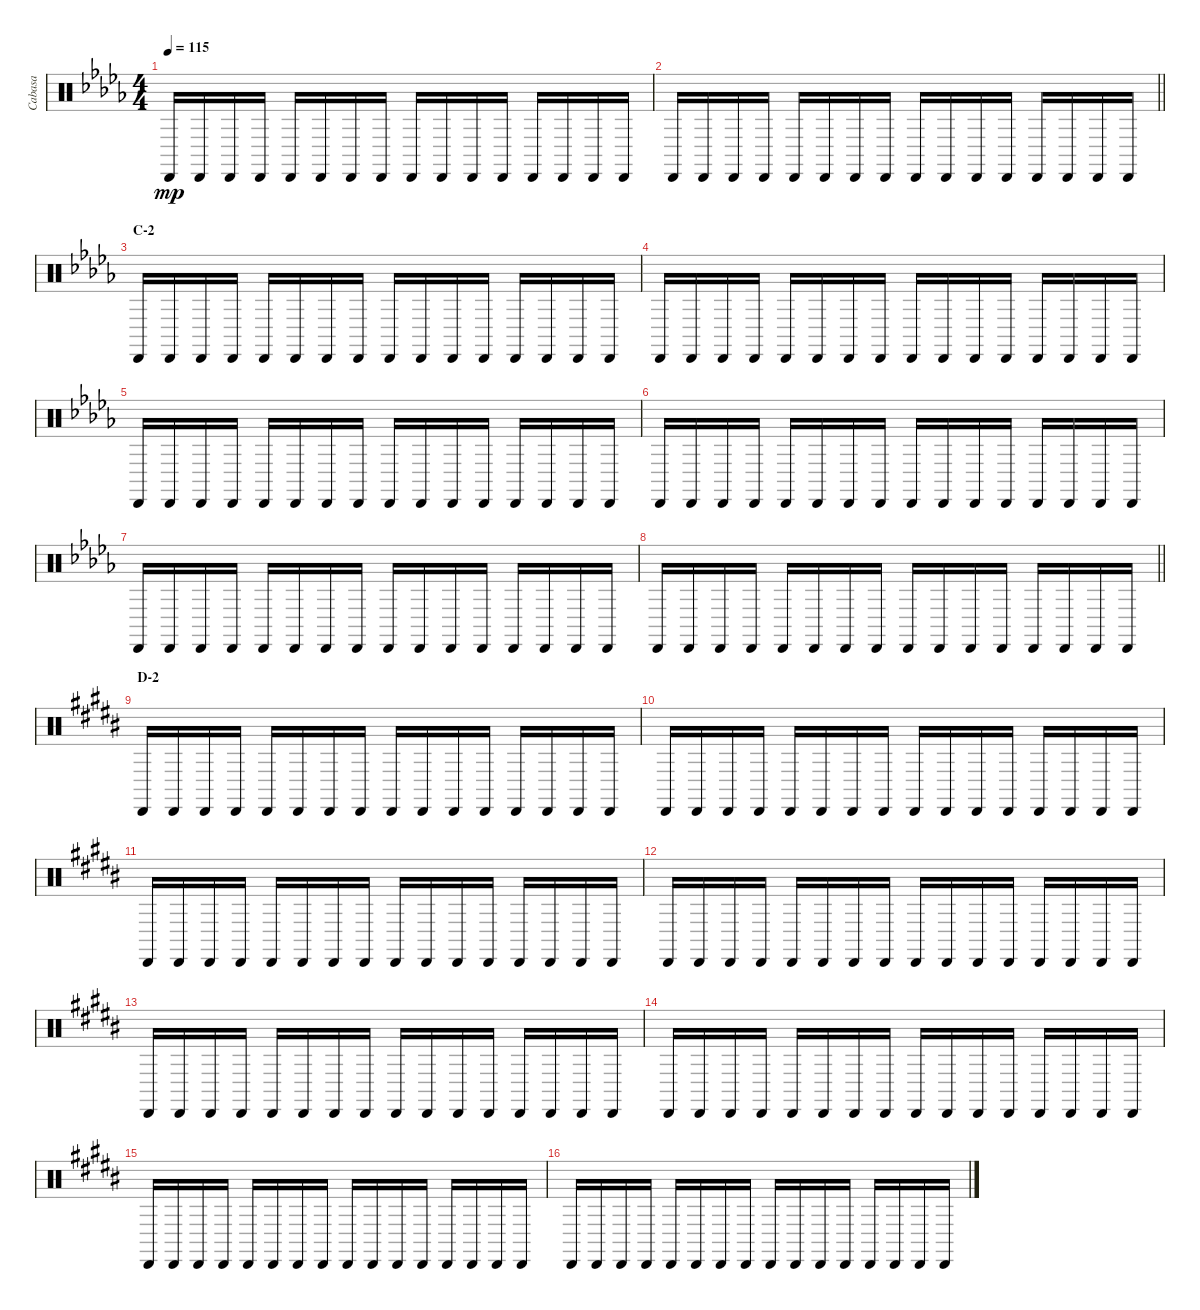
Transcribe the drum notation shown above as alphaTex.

\track ("Cabasa" "Cabasa") {instrument percussion}
\staff {score}
\articulation defaults
\ts (4 4)
\tempo 115
\clef neutral
\ks db "Cabasa (hit)".16{dy mp} "Cabasa (hit)".16 "Cabasa (hit)".16 "Cabasa (hit)".16 "Cabasa (hit)".16 "Cabasa (hit)".16 "Cabasa (hit)".16 "Cabasa (hit)".16 "Cabasa (hit)".16 "Cabasa (hit)".16 "Cabasa (hit)".16 "Cabasa (hit)".16 "Cabasa (hit)".16 "Cabasa (hit)".16 "Cabasa (hit)".16 "Cabasa (hit)".16
|
\barLineRight lightlight "Cabasa (hit)".16 "Cabasa (hit)".16 "Cabasa (hit)".16 "Cabasa (hit)".16 "Cabasa (hit)".16 "Cabasa (hit)".16 "Cabasa (hit)".16 "Cabasa (hit)".16 "Cabasa (hit)".16 "Cabasa (hit)".16 "Cabasa (hit)".16 "Cabasa (hit)".16 "Cabasa (hit)".16 "Cabasa (hit)".16 "Cabasa (hit)".16 "Cabasa (hit)".16
|
\section ("" "C-2")
"Cabasa (hit)".16 "Cabasa (hit)".16 "Cabasa (hit)".16 "Cabasa (hit)".16 "Cabasa (hit)".16 "Cabasa (hit)".16 "Cabasa (hit)".16 "Cabasa (hit)".16 "Cabasa (hit)".16 "Cabasa (hit)".16 "Cabasa (hit)".16 "Cabasa (hit)".16 "Cabasa (hit)".16 "Cabasa (hit)".16 "Cabasa (hit)".16 "Cabasa (hit)".16 |
"Cabasa (hit)".16 "Cabasa (hit)".16 "Cabasa (hit)".16 "Cabasa (hit)".16 "Cabasa (hit)".16 "Cabasa (hit)".16 "Cabasa (hit)".16 "Cabasa (hit)".16 "Cabasa (hit)".16 "Cabasa (hit)".16 "Cabasa (hit)".16 "Cabasa (hit)".16 "Cabasa (hit)".16 "Cabasa (hit)".16 "Cabasa (hit)".16 "Cabasa (hit)".16 |
"Cabasa (hit)".16 "Cabasa (hit)".16 "Cabasa (hit)".16 "Cabasa (hit)".16 "Cabasa (hit)".16 "Cabasa (hit)".16 "Cabasa (hit)".16 "Cabasa (hit)".16 "Cabasa (hit)".16 "Cabasa (hit)".16 "Cabasa (hit)".16 "Cabasa (hit)".16 "Cabasa (hit)".16 "Cabasa (hit)".16 "Cabasa (hit)".16 "Cabasa (hit)".16 |
"Cabasa (hit)".16 "Cabasa (hit)".16 "Cabasa (hit)".16 "Cabasa (hit)".16 "Cabasa (hit)".16 "Cabasa (hit)".16 "Cabasa (hit)".16 "Cabasa (hit)".16 "Cabasa (hit)".16 "Cabasa (hit)".16 "Cabasa (hit)".16 "Cabasa (hit)".16 "Cabasa (hit)".16 "Cabasa (hit)".16 "Cabasa (hit)".16 "Cabasa (hit)".16 |
"Cabasa (hit)".16 "Cabasa (hit)".16 "Cabasa (hit)".16 "Cabasa (hit)".16 "Cabasa (hit)".16 "Cabasa (hit)".16 "Cabasa (hit)".16 "Cabasa (hit)".16 "Cabasa (hit)".16 "Cabasa (hit)".16 "Cabasa (hit)".16 "Cabasa (hit)".16 "Cabasa (hit)".16 "Cabasa (hit)".16 "Cabasa (hit)".16 "Cabasa (hit)".16 |
\barLineRight lightlight "Cabasa (hit)".16 "Cabasa (hit)".16 "Cabasa (hit)".16 "Cabasa (hit)".16 "Cabasa (hit)".16 "Cabasa (hit)".16 "Cabasa (hit)".16 "Cabasa (hit)".16 "Cabasa (hit)".16 "Cabasa (hit)".16 "Cabasa (hit)".16 "Cabasa (hit)".16 "Cabasa (hit)".16 "Cabasa (hit)".16 "Cabasa (hit)".16 "Cabasa (hit)".16
|
\section ("" "D-2")
\ks b "Cabasa (hit)".16 "Cabasa (hit)".16 "Cabasa (hit)".16 "Cabasa (hit)".16 "Cabasa (hit)".16 "Cabasa (hit)".16 "Cabasa (hit)".16 "Cabasa (hit)".16 "Cabasa (hit)".16 "Cabasa (hit)".16 "Cabasa (hit)".16 "Cabasa (hit)".16 "Cabasa (hit)".16 "Cabasa (hit)".16 "Cabasa (hit)".16 "Cabasa (hit)".16
|
"Cabasa (hit)".16 "Cabasa (hit)".16 "Cabasa (hit)".16 "Cabasa (hit)".16 "Cabasa (hit)".16 "Cabasa (hit)".16 "Cabasa (hit)".16 "Cabasa (hit)".16 "Cabasa (hit)".16 "Cabasa (hit)".16 "Cabasa (hit)".16 "Cabasa (hit)".16 "Cabasa (hit)".16 "Cabasa (hit)".16 "Cabasa (hit)".16 "Cabasa (hit)".16 |
"Cabasa (hit)".16 "Cabasa (hit)".16 "Cabasa (hit)".16 "Cabasa (hit)".16 "Cabasa (hit)".16 "Cabasa (hit)".16 "Cabasa (hit)".16 "Cabasa (hit)".16 "Cabasa (hit)".16 "Cabasa (hit)".16 "Cabasa (hit)".16 "Cabasa (hit)".16 "Cabasa (hit)".16 "Cabasa (hit)".16 "Cabasa (hit)".16 "Cabasa (hit)".16 |
"Cabasa (hit)".16 "Cabasa (hit)".16 "Cabasa (hit)".16 "Cabasa (hit)".16 "Cabasa (hit)".16 "Cabasa (hit)".16 "Cabasa (hit)".16 "Cabasa (hit)".16 "Cabasa (hit)".16 "Cabasa (hit)".16 "Cabasa (hit)".16 "Cabasa (hit)".16 "Cabasa (hit)".16 "Cabasa (hit)".16 "Cabasa (hit)".16 "Cabasa (hit)".16 |
"Cabasa (hit)".16 "Cabasa (hit)".16 "Cabasa (hit)".16 "Cabasa (hit)".16 "Cabasa (hit)".16 "Cabasa (hit)".16 "Cabasa (hit)".16 "Cabasa (hit)".16 "Cabasa (hit)".16 "Cabasa (hit)".16 "Cabasa (hit)".16 "Cabasa (hit)".16 "Cabasa (hit)".16 "Cabasa (hit)".16 "Cabasa (hit)".16 "Cabasa (hit)".16 |
"Cabasa (hit)".16 "Cabasa (hit)".16 "Cabasa (hit)".16 "Cabasa (hit)".16 "Cabasa (hit)".16 "Cabasa (hit)".16 "Cabasa (hit)".16 "Cabasa (hit)".16 "Cabasa (hit)".16 "Cabasa (hit)".16 "Cabasa (hit)".16 "Cabasa (hit)".16 "Cabasa (hit)".16 "Cabasa (hit)".16 "Cabasa (hit)".16 "Cabasa (hit)".16 |
"Cabasa (hit)".16 "Cabasa (hit)".16 "Cabasa (hit)".16 "Cabasa (hit)".16 "Cabasa (hit)".16 "Cabasa (hit)".16 "Cabasa (hit)".16 "Cabasa (hit)".16 "Cabasa (hit)".16 "Cabasa (hit)".16 "Cabasa (hit)".16 "Cabasa (hit)".16 "Cabasa (hit)".16 "Cabasa (hit)".16 "Cabasa (hit)".16 "Cabasa (hit)".16 |
"Cabasa (hit)".16 "Cabasa (hit)".16 "Cabasa (hit)".16 "Cabasa (hit)".16 "Cabasa (hit)".16 "Cabasa (hit)".16 "Cabasa (hit)".16 "Cabasa (hit)".16 "Cabasa (hit)".16 "Cabasa (hit)".16 "Cabasa (hit)".16 "Cabasa (hit)".16 "Cabasa (hit)".16 "Cabasa (hit)".16 "Cabasa (hit)".16 "Cabasa (hit)".16
